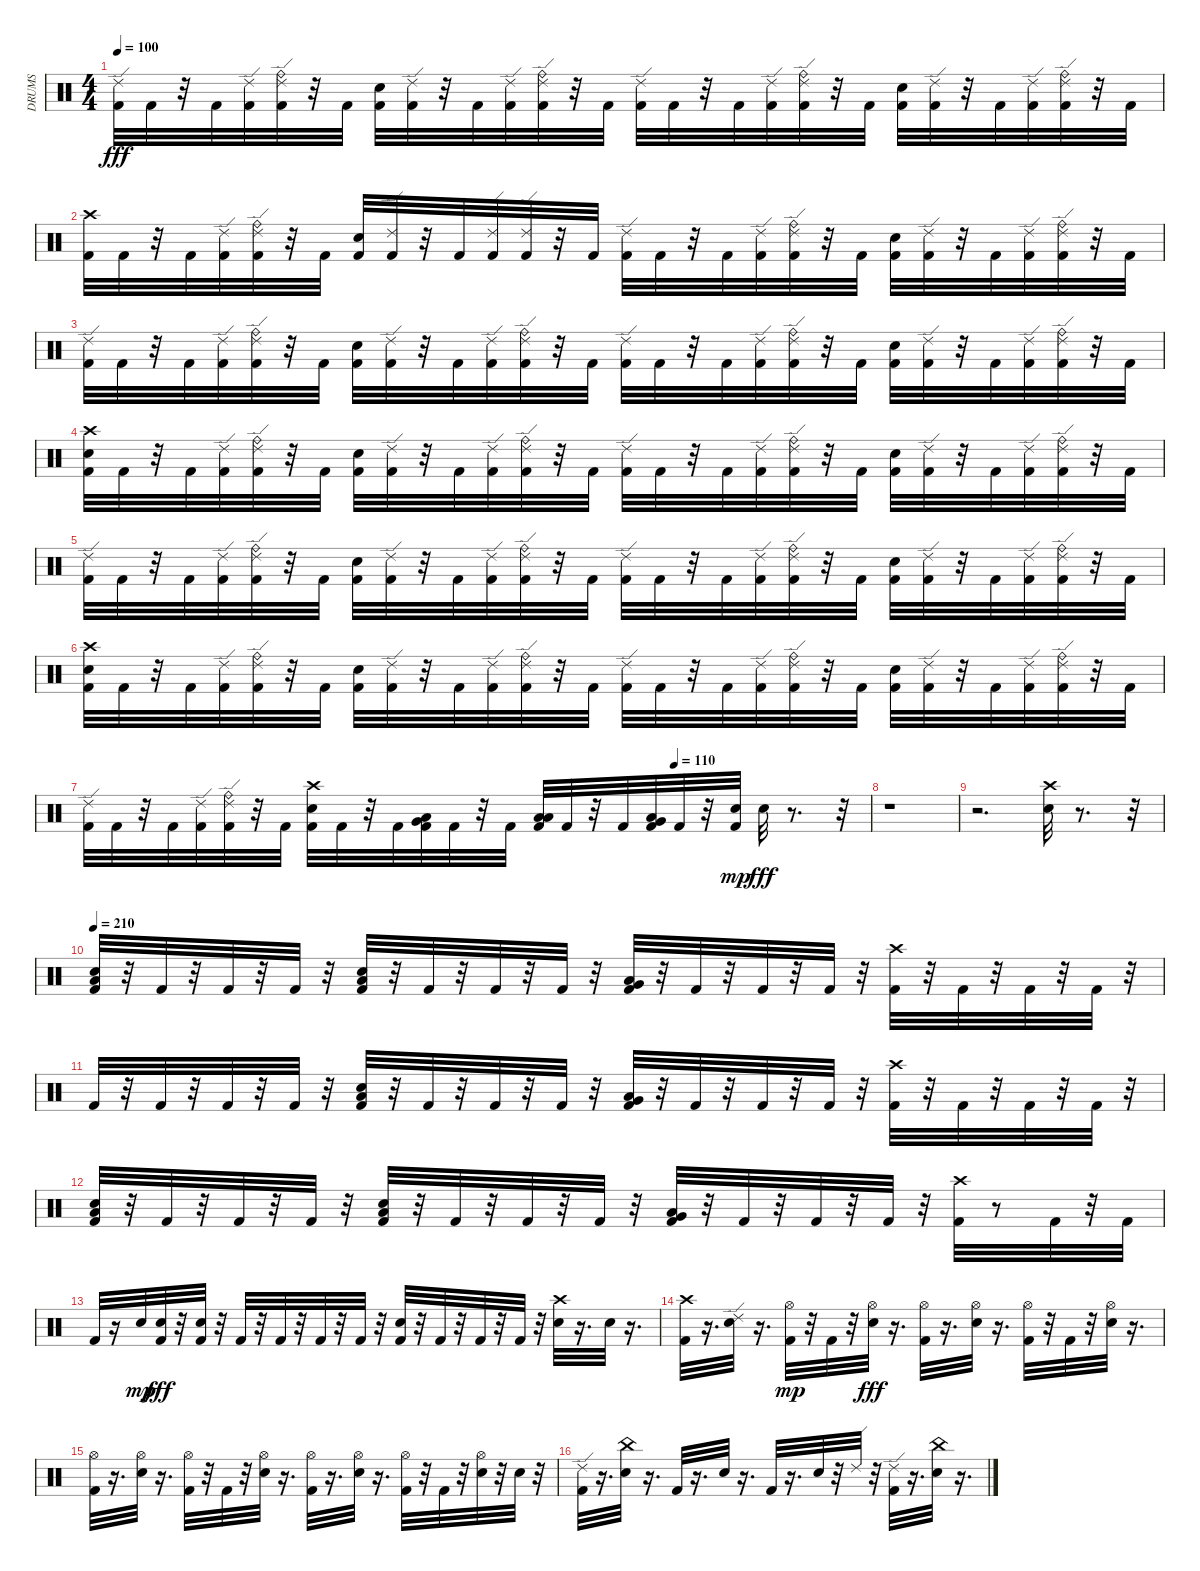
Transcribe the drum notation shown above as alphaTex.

\track ("DRUMS" "DRUMS") {instrument percussion}
\staff {score}
\articulation defaults
\ts (4 4)
\tempo 100
\clef neutral
\ks c
("Ride (edge) 2" "Kick (hit) 2").32{dy fff} "Kick (hit) 2".32 r.32 "Kick (hit) 2".32 ("Ride (edge) 2" "Kick (hit) 2").32 ("Ride (bell)" "Ride (edge) 2" "Kick (hit) 2").32 r.32 "Kick (hit) 2".32 ("Electric Snare (hit)" "Kick (hit) 2").32 ("Ride (edge) 2" "Kick (hit) 2").32 r.32 "Kick (hit) 2".32 ("Ride (edge) 2" "Kick (hit) 2").32 ("Ride (edge) 2" "Ride (bell)" "Kick (hit) 2").32 r.32 "Kick (hit) 2".32 ("Ride (edge) 2" "Kick (hit) 2").32 "Kick (hit) 2".32 r.32 "Kick (hit) 2".32 ("Ride (edge) 2" "Kick (hit) 2").32 ("Ride (bell)" "Ride (edge) 2" "Kick (hit) 2").32 r.32 "Kick (hit) 2".32 ("Electric Snare (hit)" "Kick (hit) 2").32 ("Ride (edge) 2" "Kick (hit) 2").32 r.32 "Kick (hit) 2".32 ("Ride (edge) 2" "Kick (hit) 2").32 ("Ride (edge) 2" "Ride (bell)" "Kick (hit) 2").32 r.32 "Kick (hit) 2".32 |
("Crash high (hit)" "Kick (hit) 2").32 "Kick (hit) 2".32 r.32 "Kick (hit) 2".32 ("Ride (edge) 2" "Kick (hit) 2").32 ("Ride (bell)" "Ride (edge) 2" "Kick (hit) 2").32 r.32 "Kick (hit) 2".32 ("Electric Snare (hit)" "Kick (hit) 2").32 ("Ride (edge) 2" "Kick (hit) 2").32 r.32 "Kick (hit) 2".32 ("Ride (edge) 2" "Kick (hit) 2").32 ("Ride (edge) 2" "Kick (hit) 2").32 r.32 "Kick (hit) 2".32 ("Ride (edge) 2" "Kick (hit) 2").32 "Kick (hit) 2".32 r.32 "Kick (hit) 2".32 ("Ride (edge) 2" "Kick (hit) 2").32 ("Ride (bell)" "Ride (edge) 2" "Kick (hit) 2").32 r.32 "Kick (hit) 2".32 ("Electric Snare (hit)" "Kick (hit) 2").32 ("Ride (edge) 2" "Kick (hit) 2").32 r.32 "Kick (hit) 2".32 ("Ride (edge) 2" "Kick (hit) 2").32 ("Ride (edge) 2" "Ride (bell)" "Kick (hit) 2").32 r.32 "Kick (hit) 2".32 |
("Ride (edge) 2" "Kick (hit) 2").32 "Kick (hit) 2".32 r.32 "Kick (hit) 2".32 ("Ride (edge) 2" "Kick (hit) 2").32 ("Ride (bell)" "Ride (edge) 2" "Kick (hit) 2").32 r.32 "Kick (hit) 2".32 ("Electric Snare (hit)" "Kick (hit) 2").32 ("Ride (edge) 2" "Kick (hit) 2").32 r.32 "Kick (hit) 2".32 ("Ride (edge) 2" "Kick (hit) 2").32 ("Ride (edge) 2" "Ride (bell)" "Kick (hit) 2").32 r.32 "Kick (hit) 2".32 ("Ride (edge) 2" "Kick (hit) 2").32 "Kick (hit) 2".32 r.32 "Kick (hit) 2".32 ("Ride (edge) 2" "Kick (hit) 2").32 ("Ride (bell)" "Ride (edge) 2" "Kick (hit) 2").32 r.32 "Kick (hit) 2".32 ("Electric Snare (hit)" "Kick (hit) 2").32 ("Ride (edge) 2" "Kick (hit) 2").32 r.32 "Kick (hit) 2".32 ("Ride (edge) 2" "Kick (hit) 2").32 ("Ride (edge) 2" "Ride (bell)" "Kick (hit) 2").32 r.32 "Kick (hit) 2".32 |
("Crash high (hit)" "Electric Snare (hit)" "Kick (hit) 2").32 "Kick (hit) 2".32 r.32 "Kick (hit) 2".32 ("Ride (edge) 2" "Kick (hit) 2").32 ("Ride (bell)" "Ride (edge) 2" "Kick (hit) 2").32 r.32 "Kick (hit) 2".32 ("Electric Snare (hit)" "Kick (hit) 2").32 ("Ride (edge) 2" "Kick (hit) 2").32 r.32 "Kick (hit) 2".32 ("Ride (edge) 2" "Kick (hit) 2").32 ("Ride (edge) 2" "Ride (bell)" "Kick (hit) 2").32 r.32 "Kick (hit) 2".32 ("Ride (edge) 2" "Kick (hit) 2").32 "Kick (hit) 2".32 r.32 "Kick (hit) 2".32 ("Ride (edge) 2" "Kick (hit) 2").32 ("Ride (bell)" "Ride (edge) 2" "Kick (hit) 2").32 r.32 "Kick (hit) 2".32 ("Electric Snare (hit)" "Kick (hit) 2").32 ("Ride (edge) 2" "Kick (hit) 2").32 r.32 "Kick (hit) 2".32 ("Ride (edge) 2" "Kick (hit) 2").32 ("Ride (edge) 2" "Ride (bell)" "Kick (hit) 2").32 r.32 "Kick (hit) 2".32 |
("Ride (edge) 2" "Kick (hit) 2").32 "Kick (hit) 2".32 r.32 "Kick (hit) 2".32 ("Ride (edge) 2" "Kick (hit) 2").32 ("Ride (bell)" "Ride (edge) 2" "Kick (hit) 2").32 r.32 "Kick (hit) 2".32 ("Electric Snare (hit)" "Kick (hit) 2").32 ("Ride (edge) 2" "Kick (hit) 2").32 r.32 "Kick (hit) 2".32 ("Ride (edge) 2" "Kick (hit) 2").32 ("Ride (edge) 2" "Ride (bell)" "Kick (hit) 2").32 r.32 "Kick (hit) 2".32 ("Ride (edge) 2" "Kick (hit) 2").32 "Kick (hit) 2".32 r.32 "Kick (hit) 2".32 ("Ride (edge) 2" "Kick (hit) 2").32 ("Ride (bell)" "Ride (edge) 2" "Kick (hit) 2").32 r.32 "Kick (hit) 2".32 ("Electric Snare (hit)" "Kick (hit) 2").32 ("Ride (edge) 2" "Kick (hit) 2").32 r.32 "Kick (hit) 2".32 ("Ride (edge) 2" "Kick (hit) 2").32 ("Ride (edge) 2" "Ride (bell)" "Kick (hit) 2").32 r.32 "Kick (hit) 2".32 |
("Crash high (hit)" "Electric Snare (hit)" "Kick (hit) 2").32 "Kick (hit) 2".32 r.32 "Kick (hit) 2".32 ("Ride (edge) 2" "Kick (hit) 2").32 ("Ride (bell)" "Ride (edge) 2" "Kick (hit) 2").32 r.32 "Kick (hit) 2".32 ("Electric Snare (hit)" "Kick (hit) 2").32 ("Ride (edge) 2" "Kick (hit) 2").32 r.32 "Kick (hit) 2".32 ("Ride (edge) 2" "Kick (hit) 2").32 ("Ride (edge) 2" "Ride (bell)" "Kick (hit) 2").32 r.32 "Kick (hit) 2".32 ("Ride (edge) 2" "Kick (hit) 2").32 "Kick (hit) 2".32 r.32 "Kick (hit) 2".32 ("Ride (edge) 2" "Kick (hit) 2").32 ("Ride (bell)" "Ride (edge) 2" "Kick (hit) 2").32 r.32 "Kick (hit) 2".32 ("Electric Snare (hit)" "Kick (hit) 2").32 ("Ride (edge) 2" "Kick (hit) 2").32 r.32 "Kick (hit) 2".32 ("Ride (edge) 2" "Kick (hit) 2").32 ("Ride (edge) 2" "Ride (bell)" "Kick (hit) 2").32 r.32 "Kick (hit) 2".32 |
\tempo (110 0.75)
("Ride (edge) 2" "Kick (hit) 2").32 "Kick (hit) 2".32 r.32 "Kick (hit) 2".32 ("Ride (edge) 2" "Kick (hit) 2").32 ("Ride (bell)" "Ride (edge) 2" "Kick (hit) 2").32 r.32 "Kick (hit) 2".32 ("Crash high (hit)" "Electric Snare (hit)" "Kick (hit) 2").32 "Kick (hit) 2".32 r.32 "Kick (hit) 2".32 ("Low Tom (hit)" "Very Low Tom (hit)" "Kick (hit) 2").32 "Kick (hit) 2".32 r.32 "Kick (hit) 2".32 ("Low Tom (hit)" "Low Floor Tom (hit)" "Kick (hit) 2").32 "Kick (hit) 2".32 r.32 "Kick (hit) 2".32 ("Very Low Tom (hit)" "Low Floor Tom (hit)" "Kick (hit) 2").32 "Kick (hit) 2".32 r.32 ("Kick (hit) 2" "Electric Snare (hit)").32{dy mp} "Electric Snare (hit)".32{dy fff} r.8{d} r.32 |
r.1 |
r.2{d} ("Crash high (hit)" "Electric Snare (hit)").32 r.8{d} r.32 |
\tempo 210
("Electric Snare (hit)" "Low Floor Tom (hit)" "Kick (hit) 2").32 r.32 "Kick (hit) 2".32 r.32 "Kick (hit) 2".32 r.32 "Kick (hit) 2".32 r.32 ("Electric Snare (hit)" "Low Floor Tom (hit)" "Kick (hit) 2").32 r.32 "Kick (hit) 2".32 r.32 "Kick (hit) 2".32 r.32 "Kick (hit) 2".32 r.32 ("Very Low Tom (hit)" "Low Floor Tom (hit)" "Kick (hit) 2").32 r.32 "Kick (hit) 2".32 r.32 "Kick (hit) 2".32 r.32 "Kick (hit) 2".32 r.32 ("Crash high (hit)" "Kick (hit) 2").32 r.32 "Kick (hit) 2".32 r.32 "Kick (hit) 2".32 r.32 "Kick (hit) 2".32 r.32 |
"Kick (hit) 2".32 r.32 "Kick (hit) 2".32 r.32 "Kick (hit) 2".32 r.32 "Kick (hit) 2".32 r.32 ("Electric Snare (hit)" "Low Floor Tom (hit)" "Kick (hit) 2").32 r.32 "Kick (hit) 2".32 r.32 "Kick (hit) 2".32 r.32 "Kick (hit) 2".32 r.32 ("Very Low Tom (hit)" "Low Floor Tom (hit)" "Kick (hit) 2").32 r.32 "Kick (hit) 2".32 r.32 "Kick (hit) 2".32 r.32 "Kick (hit) 2".32 r.32 ("Crash high (hit)" "Kick (hit) 2").32 r.32 "Kick (hit) 2".32 r.32 "Kick (hit) 2".32 r.32 "Kick (hit) 2".32 r.32 |
("Electric Snare (hit)" "Low Floor Tom (hit)" "Kick (hit) 2").32 r.32 "Kick (hit) 2".32 r.32 "Kick (hit) 2".32 r.32 "Kick (hit) 2".32 r.32 ("Electric Snare (hit)" "Low Floor Tom (hit)" "Kick (hit) 2").32 r.32 "Kick (hit) 2".32 r.32 "Kick (hit) 2".32 r.32 "Kick (hit) 2".32 r.32 ("Very Low Tom (hit)" "Low Floor Tom (hit)" "Kick (hit) 2").32 r.32 "Kick (hit) 2".32 r.32 "Kick (hit) 2".32 r.32 "Kick (hit) 2".32 r.32 ("Crash high (hit)" "Kick (hit) 2").32 r.8 "Kick (hit) 2".32 r.32 "Kick (hit) 2".32 |
"Kick (hit) 2".32 r.16 "Electric Snare (hit)".32{dy mp} ("Electric Snare (hit)" "Kick (hit) 2").32{dy fff} r.32 ("Electric Snare (hit)" "Kick (hit) 2").32 r.32 "Kick (hit) 2".32 r.32 "Kick (hit) 2".32 r.32 "Kick (hit) 2".32 r.32 "Kick (hit) 2".32 r.32 ("Electric Snare (hit)" "Kick (hit) 2").32 r.32 "Kick (hit) 2".32 r.32 "Kick (hit) 2".32 r.32 "Kick (hit) 2".32 r.32 ("Crash high (hit)" "Electric Snare (hit)").32 r.16{d} "Electric Snare (hit)".32 r.16{d} |
("Crash high (hit)" "Kick (hit) 2").32 r.16{d} ("Ride (edge) 2" "Electric Snare (hit)").32 r.16{d} ("Hi-Hat (open)" "Kick (hit) 2").32{dy mp} r.32 "Kick (hit) 2".32 r.32 ("Hi-Hat (open)" "Electric Snare (hit)").32{dy fff} r.16{d} ("Hi-Hat (open)" "Kick (hit) 2").32 r.16{d} ("Hi-Hat (open)" "Electric Snare (hit)").32 r.16{d} ("Hi-Hat (open)" "Kick (hit) 2").32 r.32 "Kick (hit) 2".32 r.32 ("Hi-Hat (open)" "Electric Snare (hit)").32 r.16{d} |
("Hi-Hat (open)" "Kick (hit) 2").32 r.16{d} ("Hi-Hat (open)" "Electric Snare (hit)").32 r.16{d} ("Hi-Hat (open)" "Kick (hit) 2").32 r.32 "Kick (hit) 2".32 r.32 ("Hi-Hat (open)" "Electric Snare (hit)").32 r.16{d} ("Hi-Hat (open)" "Kick (hit) 2").32 r.16{d} ("Hi-Hat (open)" "Electric Snare (hit)").32 r.16{d} ("Hi-Hat (open)" "Kick (hit) 2").32 r.32 "Kick (hit) 2".32 r.32 ("Hi-Hat (open)" "Electric Snare (hit)").32 r.32 "Electric Snare (hit)".32 r.32 |
("Ride (edge) 2" "Kick (hit) 2").32 r.16{d} ("China (hit)" "Electric Snare (hit)").32 r.16{d} "Kick (hit) 2".32 r.16{d} "Electric Snare (hit)".32 r.16{d} "Kick (hit) 2".32 r.16{d} "Electric Snare (hit)".32 r.32 "Ride (edge) 2".32 r.32 ("Ride (edge) 2" "Kick (hit) 2").32 r.16{d} ("China (hit)" "Electric Snare (hit)").32 r.16{d}
